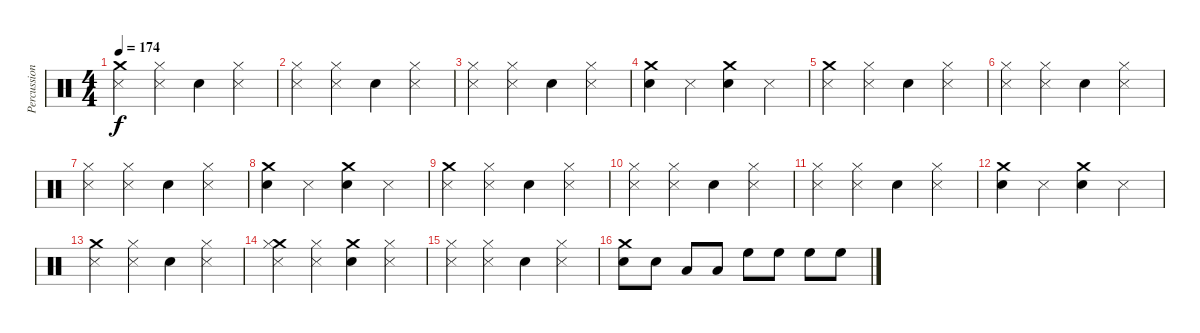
\track ("Percussion" "Percussion") {instrument percussion}
\staff {score}
\articulation defaults
\ts (4 4)
\tempo 174
\clef neutral
\ks c
("Crash medium (hit)" "Metronome (hit)").4{dy f} ("Hi-Hat (closed)" "Metronome (hit)").4 "Electric Snare (hit)".4 ("Hi-Hat (closed)" "Metronome (hit)").4 |
("Hi-Hat (closed)" "Metronome (hit)").4 ("Hi-Hat (closed)" "Metronome (hit)").4 "Electric Snare (hit)".4 ("Hi-Hat (closed)" "Metronome (hit)").4 |
("Hi-Hat (closed)" "Metronome (hit)").4 ("Hi-Hat (closed)" "Metronome (hit)").4 "Electric Snare (hit)".4 ("Hi-Hat (closed)" "Metronome (hit)").4 |
("Crash medium (hit)" "Electric Snare (hit)").4 "Metronome (hit)".4 ("Crash medium (hit)" "Electric Snare (hit)").4 "Metronome (hit)".4 |
("Crash medium (hit)" "Metronome (hit)").4 ("Hi-Hat (closed)" "Metronome (hit)").4 "Electric Snare (hit)".4 ("Hi-Hat (closed)" "Metronome (hit)").4 |
("Hi-Hat (closed)" "Metronome (hit)").4 ("Hi-Hat (closed)" "Metronome (hit)").4 "Electric Snare (hit)".4 ("Hi-Hat (closed)" "Metronome (hit)").4 |
("Hi-Hat (closed)" "Metronome (hit)").4 ("Hi-Hat (closed)" "Metronome (hit)").4 "Electric Snare (hit)".4 ("Hi-Hat (closed)" "Metronome (hit)").4 |
("Crash medium (hit)" "Electric Snare (hit)").4 "Metronome (hit)".4 ("Crash medium (hit)" "Electric Snare (hit)").4 "Metronome (hit)".4 |
("Crash medium (hit)" "Metronome (hit)").4 ("Hi-Hat (closed)" "Metronome (hit)").4 "Electric Snare (hit)".4 ("Hi-Hat (closed)" "Metronome (hit)").4 |
("Hi-Hat (closed)" "Metronome (hit)").4 ("Hi-Hat (closed)" "Metronome (hit)").4 "Electric Snare (hit)".4 ("Hi-Hat (closed)" "Metronome (hit)").4 |
("Hi-Hat (closed)" "Metronome (hit)").4 ("Hi-Hat (closed)" "Metronome (hit)").4 "Electric Snare (hit)".4 ("Hi-Hat (closed)" "Metronome (hit)").4 |
("Crash medium (hit)" "Electric Snare (hit)").4 "Metronome (hit)".4 ("Crash medium (hit)" "Electric Snare (hit)").4 "Metronome (hit)".4 |
("Crash medium (hit)" "Metronome (hit)").4 ("Hi-Hat (closed)" "Metronome (hit)").4 "Electric Snare (hit)".4 ("Hi-Hat (closed)" "Metronome (hit)").4 |
("Crash medium (hit)" "Hi-Hat (closed)" "Metronome (hit)").4 ("Hi-Hat (closed)" "Metronome (hit)").4 ("Crash medium (hit)" "Electric Snare (hit)").4 ("Hi-Hat (closed)" "Metronome (hit)").4 |
("Hi-Hat (closed)" "Metronome (hit)").4 ("Hi-Hat (closed)" "Metronome (hit)").4 "Electric Snare (hit)".4 ("Hi-Hat (closed)" "Metronome (hit)").4 |
("Crash medium (hit)" "Electric Snare (hit)").8 "Electric Snare (hit)".8 "Low Tom (hit)".8 "Low Tom (hit)".8 "High Floor Tom (hit)".8 "High Floor Tom (hit)".8 "High Floor Tom (hit)".8 "High Floor Tom (hit)".8
